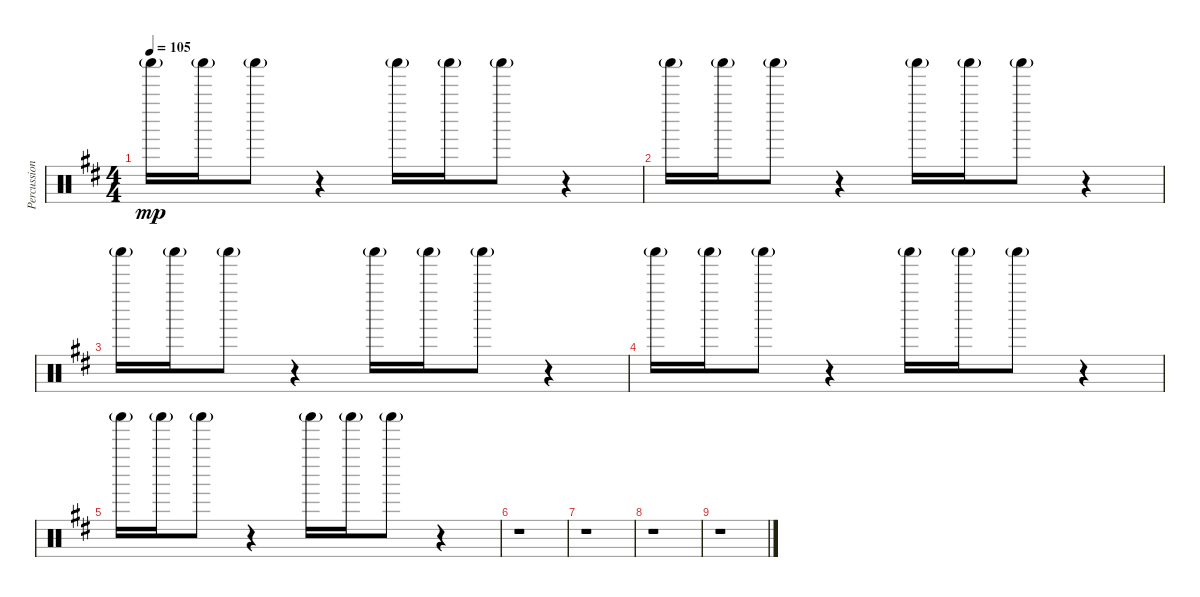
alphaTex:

\track ("Percussion" "Percussion") {instrument percussion}
\staff {score}
\articulation defaults
\ts (4 4)
\tempo 105
\clef neutral
\ks bminor "Shaker (hit)"{g}.16{dy mp} "Shaker (hit)"{g}.16 "Shaker (hit)"{g}.8
r.4 "Shaker (hit)"{g}.16 "Shaker (hit)"{g}.16 "Shaker (hit)"{g}.8 r.4 |
"Shaker (hit)"{g}.16 "Shaker (hit)"{g}.16 "Shaker (hit)"{g}.8 r.4 "Shaker (hit)"{g}.16 "Shaker (hit)"{g}.16 "Shaker (hit)"{g}.8 r.4 |
"Shaker (hit)"{g}.16 "Shaker (hit)"{g}.16 "Shaker (hit)"{g}.8 r.4 "Shaker (hit)"{g}.16 "Shaker (hit)"{g}.16 "Shaker (hit)"{g}.8 r.4 |
"Shaker (hit)"{g}.16 "Shaker (hit)"{g}.16 "Shaker (hit)"{g}.8 r.4 "Shaker (hit)"{g}.16 "Shaker (hit)"{g}.16 "Shaker (hit)"{g}.8 r.4 |
"Shaker (hit)"{g}.16 "Shaker (hit)"{g}.16 "Shaker (hit)"{g}.8 r.4 "Shaker (hit)"{g}.16 "Shaker (hit)"{g}.16 "Shaker (hit)"{g}.8 r.4 |
r.1 |
r.1 |
r.1 |
r.1
